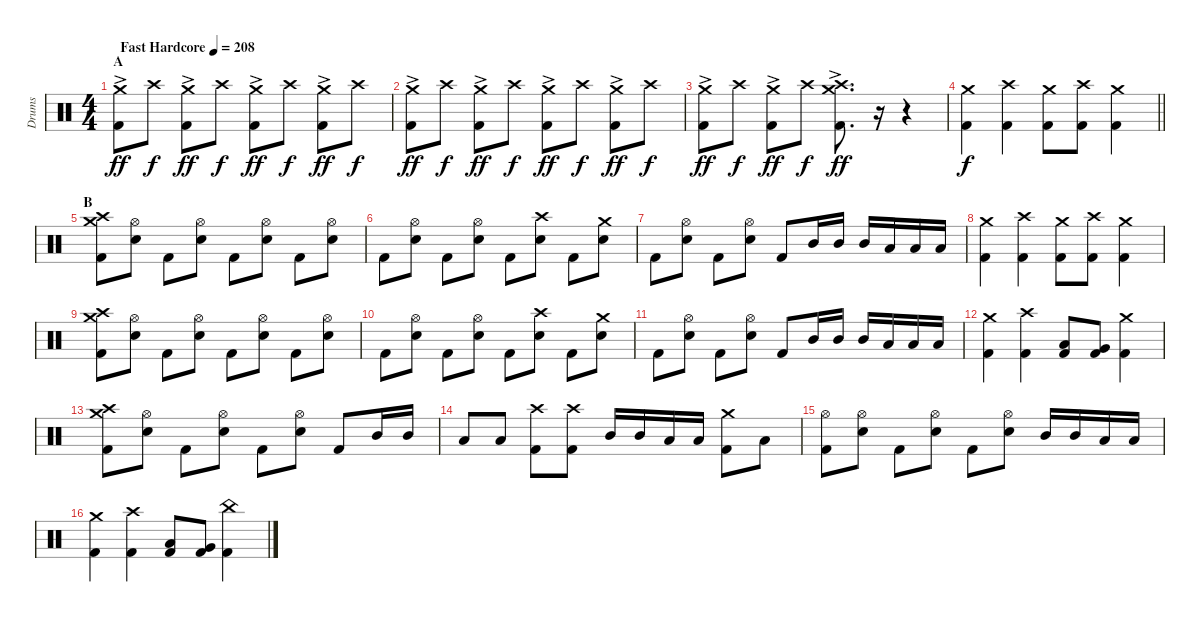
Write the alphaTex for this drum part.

\track ("Drums" "Drums") {instrument percussion}
\staff {score}
\articulation defaults
\ts (4 4)
\section ("" "A")
\tempo (208 "Fast Hardcore")
\clef neutral
\ks c
("Crash medium (hit)" "Kick (hit) 2"{ac}).8{dy ff} "Crash high (hit)".8{dy f} ("Crash medium (hit)" "Kick (hit) 2"{ac}).8{dy ff} "Crash high (hit)".8{dy f} ("Crash medium (hit)" "Kick (hit) 2"{ac}).8{dy ff} "Crash high (hit)".8{dy f} ("Crash medium (hit)" "Kick (hit) 2"{ac}).8{dy ff} "Crash high (hit)".8{dy f} |
("Crash medium (hit)" "Kick (hit) 2"{ac}).8{dy ff} "Crash high (hit)".8{dy f} ("Crash medium (hit)" "Kick (hit) 2"{ac}).8{dy ff} "Crash high (hit)".8{dy f} ("Crash medium (hit)" "Kick (hit) 2"{ac}).8{dy ff} "Crash high (hit)".8{dy f} ("Crash medium (hit)" "Kick (hit) 2"{ac}).8{dy ff} "Crash high (hit)".8{dy f} |
("Crash medium (hit)" "Kick (hit) 2"{ac}).8{dy ff} "Crash high (hit)".8{dy f} ("Crash medium (hit)" "Kick (hit) 2"{ac}).8{dy ff} "Crash high (hit)".8{dy f} ("Crash medium (hit)" "Crash high (hit)" "Kick (hit) 2"{ac}).8{d dy ff} r.16{volume 0} r.4 |
\barLineRight lightlight
("Crash medium (hit)" "Kick (hit) 2").4{dy f volume 14} ("Crash high (hit)" "Kick (hit) 2").4 ("Crash medium (hit)" "Kick (hit) 2").8 ("Crash high (hit)" "Kick (hit) 2").8 ("Crash medium (hit)" "Kick (hit) 2").4 |
\section ("" "B")
("Crash medium (hit)" "Crash high (hit)" "Kick (hit) 2").8 ("Hi-Hat (open)" "Electric Snare (hit)").8 "Kick (hit) 2".8 ("Hi-Hat (open)" "Electric Snare (hit)").8 "Kick (hit) 2".8 ("Hi-Hat (open)" "Electric Snare (hit)").8 "Kick (hit) 2".8 ("Hi-Hat (open)" "Electric Snare (hit)").8 |
"Kick (hit) 2".8 ("Hi-Hat (open)" "Electric Snare (hit)").8 "Kick (hit) 2".8 ("Hi-Hat (open)" "Electric Snare (hit)").8 "Kick (hit) 2".8 ("Crash high (hit)" "Electric Snare (hit)").8 "Kick (hit) 2".8 ("Crash medium (hit)" "Electric Snare (hit)").8 |
"Kick (hit) 2".8 ("Hi-Hat (open)" "Electric Snare (hit)").8 "Kick (hit) 2".8 ("Hi-Hat (open)" "Electric Snare (hit)").8 "Kick (hit) 2".8 "Mid Tom (hit)".16 "Mid Tom (hit)".16 "Mid Tom (hit)".16 "Low Tom (hit)".16 "Low Tom (hit)".16 "Low Tom (hit)".16 |
("Crash medium (hit)" "Kick (hit) 2").4 ("Crash high (hit)" "Kick (hit) 2").4 ("Crash medium (hit)" "Kick (hit) 2").8 ("Crash high (hit)" "Kick (hit) 2").8 ("Crash medium (hit)" "Kick (hit) 2").4 |
("Crash medium (hit)" "Crash high (hit)" "Kick (hit) 2").8 ("Hi-Hat (open)" "Electric Snare (hit)").8 "Kick (hit) 2".8 ("Hi-Hat (open)" "Electric Snare (hit)").8 "Kick (hit) 2".8 ("Hi-Hat (open)" "Electric Snare (hit)").8 "Kick (hit) 2".8 ("Hi-Hat (open)" "Electric Snare (hit)").8 |
"Kick (hit) 2".8 ("Hi-Hat (open)" "Electric Snare (hit)").8 "Kick (hit) 2".8 ("Hi-Hat (open)" "Electric Snare (hit)").8 "Kick (hit) 2".8 ("Crash high (hit)" "Electric Snare (hit)").8 "Kick (hit) 2".8 ("Crash medium (hit)" "Electric Snare (hit)").8 |
"Kick (hit) 2".8 ("Hi-Hat (open)" "Electric Snare (hit)").8 "Kick (hit) 2".8 ("Hi-Hat (open)" "Electric Snare (hit)").8 "Kick (hit) 2".8 "Mid Tom (hit)".16 "Mid Tom (hit)".16 "Mid Tom (hit)".16 "Low Tom (hit)".16 "Low Tom (hit)".16 "Low Tom (hit)".16 |
("Crash medium (hit)" "Kick (hit) 2").4 ("Crash high (hit)" "Kick (hit) 2").4 ("Low Tom (hit)" "Kick (hit) 2").8 ("Very Low Tom (hit)" "Kick (hit) 2").8 ("Crash medium (hit)" "Kick (hit) 2").4 |
("Crash medium (hit)" "Crash high (hit)" "Kick (hit) 2").8 ("Hi-Hat (open)" "Electric Snare (hit)").8 "Kick (hit) 2".8 ("Hi-Hat (open)" "Electric Snare (hit)").8 "Kick (hit) 2".8 ("Hi-Hat (open)" "Electric Snare (hit)").8 "Kick (hit) 2".8 "Mid Tom (hit)".16 "Mid Tom (hit)".16 |
"Low Tom (hit)".8 "Low Tom (hit)".8 ("Crash high (hit)" "Kick (hit) 2").8 ("Crash high (hit)" "Kick (hit) 2").8 "Mid Tom (hit)".16 "Mid Tom (hit)".16 "Low Tom (hit)".16 "Low Tom (hit)".16 ("Crash medium (hit)" "Kick (hit) 2").8 "Low Tom (hit)".8 |
("Hi-Hat (open)" "Kick (hit) 2").8 ("Hi-Hat (open)" "Electric Snare (hit)").8 "Kick (hit) 2".8 ("Hi-Hat (open)" "Electric Snare (hit)").8 "Kick (hit) 2".8 ("Hi-Hat (open)" "Electric Snare (hit)").8 "Mid Tom (hit)".16 "Mid Tom (hit)".16 "Low Tom (hit)".16 "Low Tom (hit)".16 |
("Crash medium (hit)" "Kick (hit) 2").4 ("Crash high (hit)" "Kick (hit) 2").4 ("Low Tom (hit)" "Kick (hit) 2").8 ("Very Low Tom (hit)" "Kick (hit) 2").8 ("China (hit)" "Kick (hit) 2").4
